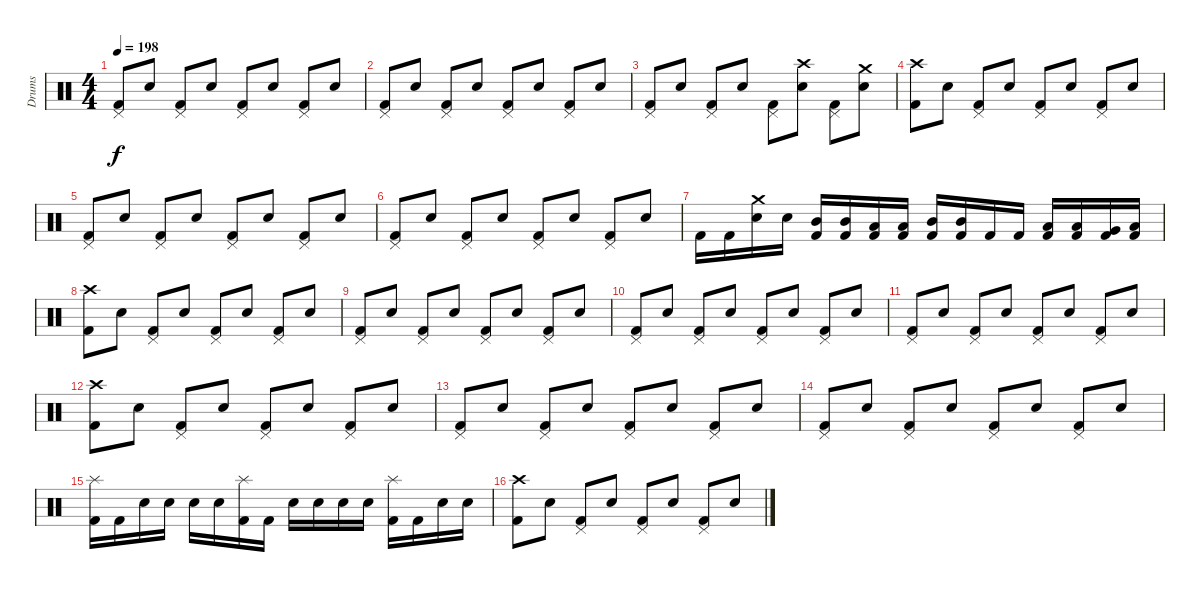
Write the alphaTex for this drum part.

\track ("Drums" "Drums") {instrument percussion}
\staff {score}
\articulation defaults
\ts (4 4)
\tempo 198
\clef neutral
\ks c
("Pedal Hi-Hat (hit)" "Kick (hit) 2").8{dy f} "Electric Snare (hit)".8 ("Pedal Hi-Hat (hit)" "Kick (hit) 2").8 "Electric Snare (hit)".8 ("Pedal Hi-Hat (hit)" "Kick (hit) 2").8 "Electric Snare (hit)".8 ("Pedal Hi-Hat (hit)" "Kick (hit) 2").8 "Electric Snare (hit)".8 |
("Pedal Hi-Hat (hit)" "Kick (hit) 2").8 "Electric Snare (hit)".8 ("Pedal Hi-Hat (hit)" "Kick (hit) 2").8 "Electric Snare (hit)".8 ("Pedal Hi-Hat (hit)" "Kick (hit) 2").8 "Electric Snare (hit)".8 ("Pedal Hi-Hat (hit)" "Kick (hit) 2").8 "Electric Snare (hit)".8 |
("Pedal Hi-Hat (hit)" "Kick (hit) 2").8 "Electric Snare (hit)".8 ("Pedal Hi-Hat (hit)" "Kick (hit) 2").8 "Electric Snare (hit)".8 ("Pedal Hi-Hat (hit)" "Kick (hit) 2").8 ("Crash high (hit)" "Electric Snare (hit)").8 ("Pedal Hi-Hat (hit)" "Kick (hit) 2").8 ("Crash medium (hit)" "Electric Snare (hit)").8 |
("Crash high (hit)" "Kick (hit) 2").8 "Electric Snare (hit)".8 ("Pedal Hi-Hat (hit)" "Kick (hit) 2").8 "Electric Snare (hit)".8 ("Pedal Hi-Hat (hit)" "Kick (hit) 2").8 "Electric Snare (hit)".8 ("Pedal Hi-Hat (hit)" "Kick (hit) 2").8 "Electric Snare (hit)".8 |
("Pedal Hi-Hat (hit)" "Kick (hit) 2").8 "Electric Snare (hit)".8 ("Pedal Hi-Hat (hit)" "Kick (hit) 2").8 "Electric Snare (hit)".8 ("Pedal Hi-Hat (hit)" "Kick (hit) 2").8 "Electric Snare (hit)".8 ("Pedal Hi-Hat (hit)" "Kick (hit) 2").8 "Electric Snare (hit)".8 |
("Pedal Hi-Hat (hit)" "Kick (hit) 2").8 "Electric Snare (hit)".8 ("Pedal Hi-Hat (hit)" "Kick (hit) 2").8 "Electric Snare (hit)".8 ("Pedal Hi-Hat (hit)" "Kick (hit) 2").8 "Electric Snare (hit)".8 ("Pedal Hi-Hat (hit)" "Kick (hit) 2").8 "Electric Snare (hit)".8 |
"Kick (hit) 2".16 "Kick (hit) 2".16 ("Crash medium (hit)" "Electric Snare (hit)").16 "Electric Snare (hit)".16 ("Mid Tom (hit)" "Kick (hit) 2").16 ("Mid Tom (hit)" "Kick (hit) 2").16 ("Low Tom (hit)" "Kick (hit) 2").16 ("Low Tom (hit)" "Kick (hit) 2").16 ("Mid Tom (hit)" "Kick (hit) 2").16 ("Mid Tom (hit)" "Kick (hit) 2").16 "Kick (hit) 2".16 "Kick (hit) 2".16 ("Low Tom (hit)" "Kick (hit) 2").16 ("Low Tom (hit)" "Kick (hit) 2").16 ("Very Low Tom (hit)" "Kick (hit) 2").16 ("Low Floor Tom (hit)" "Kick (hit) 2").16 |
("Crash high (hit)" "Kick (hit) 2").8 "Electric Snare (hit)".8 ("Pedal Hi-Hat (hit)" "Kick (hit) 2").8 "Electric Snare (hit)".8 ("Pedal Hi-Hat (hit)" "Kick (hit) 2").8 "Electric Snare (hit)".8 ("Pedal Hi-Hat (hit)" "Kick (hit) 2").8 "Electric Snare (hit)".8 |
("Pedal Hi-Hat (hit)" "Kick (hit) 2").8 "Electric Snare (hit)".8 ("Pedal Hi-Hat (hit)" "Kick (hit) 2").8 "Electric Snare (hit)".8 ("Pedal Hi-Hat (hit)" "Kick (hit) 2").8 "Electric Snare (hit)".8 ("Pedal Hi-Hat (hit)" "Kick (hit) 2").8 "Electric Snare (hit)".8 |
("Pedal Hi-Hat (hit)" "Kick (hit) 2").8 "Electric Snare (hit)".8 ("Pedal Hi-Hat (hit)" "Kick (hit) 2").8 "Electric Snare (hit)".8 ("Pedal Hi-Hat (hit)" "Kick (hit) 2").8 "Electric Snare (hit)".8 ("Pedal Hi-Hat (hit)" "Kick (hit) 2").8 "Electric Snare (hit)".8 |
("Pedal Hi-Hat (hit)" "Kick (hit) 2").8 "Electric Snare (hit)".8 ("Pedal Hi-Hat (hit)" "Kick (hit) 2").8 "Electric Snare (hit)".8 ("Pedal Hi-Hat (hit)" "Kick (hit) 2").8 "Electric Snare (hit)".8 ("Pedal Hi-Hat (hit)" "Kick (hit) 2").8 "Electric Snare (hit)".8 |
("Crash high (hit)" "Kick (hit) 2").8 "Electric Snare (hit)".8 ("Pedal Hi-Hat (hit)" "Kick (hit) 2").8 "Electric Snare (hit)".8 ("Pedal Hi-Hat (hit)" "Kick (hit) 2").8 "Electric Snare (hit)".8 ("Pedal Hi-Hat (hit)" "Kick (hit) 2").8 "Electric Snare (hit)".8 |
("Pedal Hi-Hat (hit)" "Kick (hit) 2").8 "Electric Snare (hit)".8 ("Pedal Hi-Hat (hit)" "Kick (hit) 2").8 "Electric Snare (hit)".8 ("Pedal Hi-Hat (hit)" "Kick (hit) 2").8 "Electric Snare (hit)".8 ("Pedal Hi-Hat (hit)" "Kick (hit) 2").8 "Electric Snare (hit)".8 |
("Pedal Hi-Hat (hit)" "Kick (hit) 2").8 "Electric Snare (hit)".8 ("Pedal Hi-Hat (hit)" "Kick (hit) 2").8 "Electric Snare (hit)".8 ("Pedal Hi-Hat (hit)" "Kick (hit) 2").8 "Electric Snare (hit)".8 ("Pedal Hi-Hat (hit)" "Kick (hit) 2").8 "Electric Snare (hit)".8 |
("Splash (hit)" "Kick (hit) 2").16 "Kick (hit) 2".16 "Electric Snare (hit)".16 "Electric Snare (hit)".16 "Electric Snare (hit)".16 "Electric Snare (hit)".16 ("Splash (hit)" "Kick (hit) 2").16 "Kick (hit) 2".16 "Electric Snare (hit)".16 "Electric Snare (hit)".16 "Electric Snare (hit)".16 "Electric Snare (hit)".16 ("Splash (hit)" "Kick (hit) 2").16 "Kick (hit) 2".16 "Electric Snare (hit)".16 "Electric Snare (hit)".16 |
("Crash high (hit)" "Kick (hit) 2").8 "Electric Snare (hit)".8 ("Pedal Hi-Hat (hit)" "Kick (hit) 2").8 "Electric Snare (hit)".8 ("Pedal Hi-Hat (hit)" "Kick (hit) 2").8 "Electric Snare (hit)".8 ("Pedal Hi-Hat (hit)" "Kick (hit) 2").8 "Electric Snare (hit)".8
